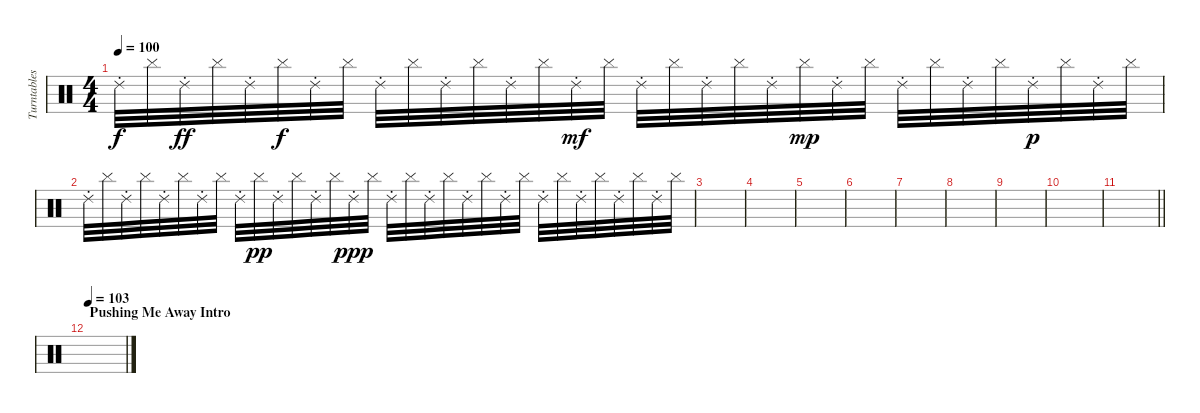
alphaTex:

\track ("Turntables - Joe Hahn" "Turntables") {instrument percussion}
\staff {score}
\articulation defaults
\ts (4 4)
\tempo 100
\clef neutral
\ks c "Ride (choke) 2".32{dy f} "Cymbal (hit)".32 "Ride (choke) 2".32{dy ff} "Cymbal (hit)".32 "Ride (choke) 2".32 "Cymbal (hit)".32{dy f} "Ride (choke) 2".32 "Cymbal (hit)".32 "Ride (choke) 2".32 "Cymbal (hit)".32 "Ride (choke) 2".32 "Cymbal (hit)".32 "Ride (choke) 2".32 "Cymbal (hit)".32 "Ride (choke) 2".32{dy mf} "Cymbal (hit)".32 "Ride (choke) 2".32 "Cymbal (hit)".32 "Ride (choke) 2".32 "Cymbal (hit)".32 "Ride (choke) 2".32 "Cymbal (hit)".32{dy mp} "Ride (choke) 2".32 "Cymbal (hit)".32 "Ride (choke) 2".32 "Cymbal (hit)".32 "Ride (choke) 2".32 "Cymbal (hit)".32 "Ride (choke) 2".32{dy p} "Cymbal (hit)".32 "Ride (choke) 2".32 "Cymbal (hit)".32
|
"Ride (choke) 2".32 "Cymbal (hit)".32 "Ride (choke) 2".32 "Cymbal (hit)".32 "Ride (choke) 2".32 "Cymbal (hit)".32 "Ride (choke) 2".32 "Cymbal (hit)".32 "Ride (choke) 2".32 "Cymbal (hit)".32{dy pp} "Ride (choke) 2".32 "Cymbal (hit)".32 "Ride (choke) 2".32 "Cymbal (hit)".32 "Ride (choke) 2".32{dy ppp} "Cymbal (hit)".32 "Ride (choke) 2".32 "Cymbal (hit)".32 "Ride (choke) 2".32 "Cymbal (hit)".32 "Ride (choke) 2".32 "Cymbal (hit)".32 "Ride (choke) 2".32 "Cymbal (hit)".32 "Ride (choke) 2".32 "Cymbal (hit)".32 "Ride (choke) 2".32 "Cymbal (hit)".32 "Ride (choke) 2".32 "Cymbal (hit)".32 "Ride (choke) 2".32 "Cymbal (hit)".32 |
|
|
|
|
|
|
|
|
\barLineRight lightlight
|
\section ("" "Pushing Me Away Intro")
\tempo 103
